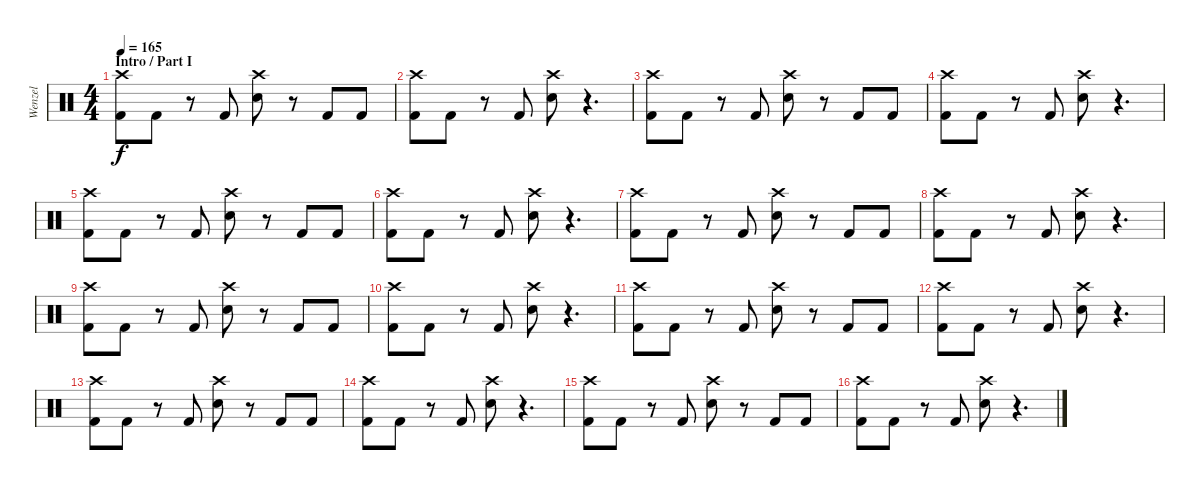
\track ("Wenzel" "Wenzel") {instrument percussion}
\staff {score}
\articulation defaults
\ts (4 4)
\section ("" "Intro / Part I")
\tempo 165
\clef neutral
\ks c
("Crash high (hit)" "Kick (hit) 2").8{dy f} "Kick (hit) 2".8 r.8 "Kick (hit) 2".8 ("Crash high (hit)" "Snare (hit) 2").8 r.8 "Kick (hit) 2".8 "Kick (hit) 2".8 |
("Crash high (hit)" "Kick (hit) 2").8 "Kick (hit) 2".8 r.8 "Kick (hit) 2".8 ("Crash high (hit)" "Snare (hit) 2").8 r.4{d} |
("Crash high (hit)" "Kick (hit) 2").8 "Kick (hit) 2".8 r.8 "Kick (hit) 2".8 ("Crash high (hit)" "Snare (hit) 2").8 r.8 "Kick (hit) 2".8 "Kick (hit) 2".8 |
("Crash high (hit)" "Kick (hit) 2").8 "Kick (hit) 2".8 r.8 "Kick (hit) 2".8 ("Crash high (hit)" "Snare (hit) 2").8 r.4{d} |
("Crash high (hit)" "Kick (hit) 2").8 "Kick (hit) 2".8 r.8 "Kick (hit) 2".8 ("Crash high (hit)" "Snare (hit) 2").8 r.8 "Kick (hit) 2".8 "Kick (hit) 2".8 |
("Crash high (hit)" "Kick (hit) 2").8 "Kick (hit) 2".8 r.8 "Kick (hit) 2".8 ("Crash high (hit)" "Snare (hit) 2").8 r.4{d} |
("Crash high (hit)" "Kick (hit) 2").8 "Kick (hit) 2".8 r.8 "Kick (hit) 2".8 ("Crash high (hit)" "Snare (hit) 2").8 r.8 "Kick (hit) 2".8 "Kick (hit) 2".8 |
("Crash high (hit)" "Kick (hit) 2").8 "Kick (hit) 2".8 r.8 "Kick (hit) 2".8 ("Crash high (hit)" "Snare (hit) 2").8 r.4{d} |
("Crash high (hit)" "Kick (hit) 2").8 "Kick (hit) 2".8 r.8 "Kick (hit) 2".8 ("Crash high (hit)" "Snare (hit) 2").8 r.8 "Kick (hit) 2".8 "Kick (hit) 2".8 |
("Crash high (hit)" "Kick (hit) 2").8 "Kick (hit) 2".8 r.8 "Kick (hit) 2".8 ("Crash high (hit)" "Snare (hit) 2").8 r.4{d} |
("Crash high (hit)" "Kick (hit) 2").8 "Kick (hit) 2".8 r.8 "Kick (hit) 2".8 ("Crash high (hit)" "Snare (hit) 2").8 r.8 "Kick (hit) 2".8 "Kick (hit) 2".8 |
("Crash high (hit)" "Kick (hit) 2").8 "Kick (hit) 2".8 r.8 "Kick (hit) 2".8 ("Crash high (hit)" "Snare (hit) 2").8 r.4{d} |
("Crash high (hit)" "Kick (hit) 2").8 "Kick (hit) 2".8 r.8 "Kick (hit) 2".8 ("Crash high (hit)" "Snare (hit) 2").8 r.8 "Kick (hit) 2".8 "Kick (hit) 2".8 |
("Crash high (hit)" "Kick (hit) 2").8 "Kick (hit) 2".8 r.8 "Kick (hit) 2".8 ("Crash high (hit)" "Snare (hit) 2").8 r.4{d} |
("Crash high (hit)" "Kick (hit) 2").8 "Kick (hit) 2".8 r.8 "Kick (hit) 2".8 ("Crash high (hit)" "Snare (hit) 2").8 r.8 "Kick (hit) 2".8 "Kick (hit) 2".8 |
("Crash high (hit)" "Kick (hit) 2").8 "Kick (hit) 2".8 r.8 "Kick (hit) 2".8 ("Crash high (hit)" "Snare (hit) 2").8 r.4{d}
